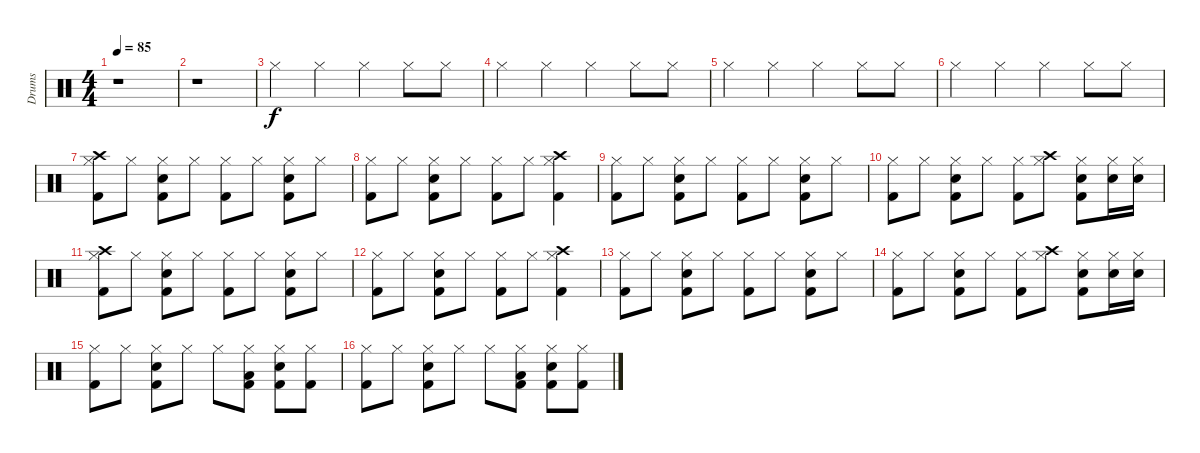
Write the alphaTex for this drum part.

\track ("Drums" "Drums") {instrument percussion}
\staff {score}
\articulation defaults
\ts (4 4)
\tempo 85
\clef neutral
\ks c
r.1{dy f} |
r.1 |
"Hi-Hat (closed)".4 "Hi-Hat (closed)".4 "Hi-Hat (closed)".4 "Hi-Hat (closed)".8 "Hi-Hat (closed)".8 |
"Hi-Hat (closed)".4 "Hi-Hat (closed)".4 "Hi-Hat (closed)".4 "Hi-Hat (closed)".8 "Hi-Hat (closed)".8 |
"Hi-Hat (closed)".4 "Hi-Hat (closed)".4 "Hi-Hat (closed)".4 "Hi-Hat (closed)".8 "Hi-Hat (closed)".8 |
"Hi-Hat (closed)".4 "Hi-Hat (closed)".4 "Hi-Hat (closed)".4 "Hi-Hat (closed)".8 "Hi-Hat (closed)".8 |
("Crash high (hit)" "Hi-Hat (closed)" "Kick (hit) 2").8 "Hi-Hat (closed)".8 ("Hi-Hat (closed)" "Electric Snare (hit)" "Kick (hit) 2").8 "Hi-Hat (closed)".8 ("Hi-Hat (closed)" "Kick (hit) 2").8 "Hi-Hat (closed)".8 ("Hi-Hat (closed)" "Electric Snare (hit)" "Kick (hit) 2").8 "Hi-Hat (closed)".8 |
("Hi-Hat (closed)" "Kick (hit) 2").8 "Hi-Hat (closed)".8 ("Hi-Hat (closed)" "Electric Snare (hit)" "Kick (hit) 2").8 "Hi-Hat (closed)".8 ("Hi-Hat (closed)" "Kick (hit) 2").8 "Hi-Hat (closed)".8 ("Crash high (hit)" "Hi-Hat (closed)" "Kick (hit) 2").4 |
("Hi-Hat (closed)" "Kick (hit) 2").8 "Hi-Hat (closed)".8 ("Hi-Hat (closed)" "Electric Snare (hit)" "Kick (hit) 2").8 "Hi-Hat (closed)".8 ("Hi-Hat (closed)" "Kick (hit) 2").8 "Hi-Hat (closed)".8 ("Hi-Hat (closed)" "Electric Snare (hit)" "Kick (hit) 2").8 "Hi-Hat (closed)".8 |
("Hi-Hat (closed)" "Kick (hit) 2").8 "Hi-Hat (closed)".8 ("Hi-Hat (closed)" "Electric Snare (hit)" "Kick (hit) 2").8 "Hi-Hat (closed)".8 ("Hi-Hat (closed)" "Kick (hit) 2").8 ("Crash high (hit)" "Hi-Hat (closed)").8 ("Hi-Hat (closed)" "Electric Snare (hit)" "Kick (hit) 2").8 ("Hi-Hat (closed)" "Electric Snare (hit)").16 ("Hi-Hat (closed)" "Electric Snare (hit)").16 |
("Crash high (hit)" "Hi-Hat (closed)" "Kick (hit) 2").8 "Hi-Hat (closed)".8 ("Hi-Hat (closed)" "Electric Snare (hit)" "Kick (hit) 2").8 "Hi-Hat (closed)".8 ("Hi-Hat (closed)" "Kick (hit) 2").8 "Hi-Hat (closed)".8 ("Hi-Hat (closed)" "Electric Snare (hit)" "Kick (hit) 2").8 "Hi-Hat (closed)".8 |
("Hi-Hat (closed)" "Kick (hit) 2").8 "Hi-Hat (closed)".8 ("Hi-Hat (closed)" "Electric Snare (hit)" "Kick (hit) 2").8 "Hi-Hat (closed)".8 ("Hi-Hat (closed)" "Kick (hit) 2").8 "Hi-Hat (closed)".8 ("Crash high (hit)" "Hi-Hat (closed)" "Kick (hit) 2").4 |
("Hi-Hat (closed)" "Kick (hit) 2").8 "Hi-Hat (closed)".8 ("Hi-Hat (closed)" "Electric Snare (hit)" "Kick (hit) 2").8 "Hi-Hat (closed)".8 ("Hi-Hat (closed)" "Kick (hit) 2").8 "Hi-Hat (closed)".8 ("Hi-Hat (closed)" "Electric Snare (hit)" "Kick (hit) 2").8 "Hi-Hat (closed)".8 |
("Hi-Hat (closed)" "Kick (hit) 2").8 "Hi-Hat (closed)".8 ("Hi-Hat (closed)" "Electric Snare (hit)" "Kick (hit) 2").8 "Hi-Hat (closed)".8 ("Hi-Hat (closed)" "Kick (hit) 2").8 ("Crash high (hit)" "Hi-Hat (closed)").8 ("Hi-Hat (closed)" "Electric Snare (hit)" "Kick (hit) 2").8 ("Hi-Hat (closed)" "Electric Snare (hit)").16 ("Hi-Hat (closed)" "Electric Snare (hit)").16 |
("Hi-Hat (closed)" "Kick (hit) 2").8 "Hi-Hat (closed)".8 ("Hi-Hat (closed)" "Electric Snare (hit)" "Kick (hit) 2").8 "Hi-Hat (closed)".8 "Hi-Hat (closed)".8 ("Hi-Hat (closed)" "Low Tom (hit)" "Kick (hit) 2").8 ("Hi-Hat (closed)" "Electric Snare (hit)" "Kick (hit) 2").8 ("Hi-Hat (closed)" "Kick (hit) 2").8 |
("Hi-Hat (closed)" "Kick (hit) 2").8 "Hi-Hat (closed)".8 ("Hi-Hat (closed)" "Electric Snare (hit)" "Kick (hit) 2").8 "Hi-Hat (closed)".8 "Hi-Hat (closed)".8 ("Hi-Hat (closed)" "Low Tom (hit)" "Kick (hit) 2").8 ("Hi-Hat (closed)" "Electric Snare (hit)" "Kick (hit) 2").8 ("Hi-Hat (closed)" "Kick (hit) 2").8
